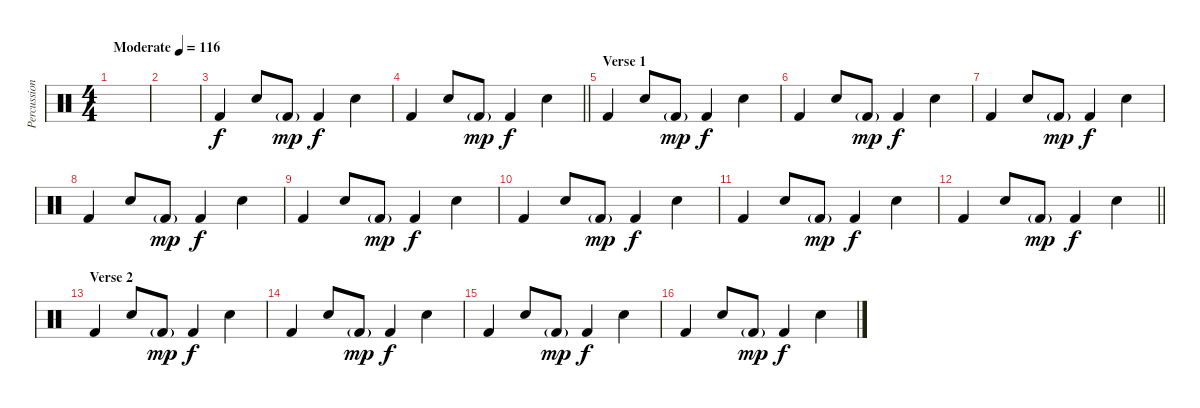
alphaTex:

\track ("Percussion" "Percussion") {instrument percussion}
\staff {score}
\articulation defaults
\ts (4 4)
\tempo (116 "Moderate")
\clef neutral
\ks c
|
|
"Kick (hit) 2".4 "Snare (hit) 2".8 "Kick (hit) 2"{g}.8{dy mp} "Kick (hit) 2".4{dy f} "Snare (hit) 2".4 |
\barLineRight lightlight "Kick (hit) 2".4 "Snare (hit) 2".8 "Kick (hit) 2"{g}.8{dy mp} "Kick (hit) 2".4{dy f} "Snare (hit) 2".4
|
\section ("" "Verse 1")
"Kick (hit) 2".4 "Snare (hit) 2".8 "Kick (hit) 2"{g}.8{dy mp} "Kick (hit) 2".4{dy f} "Snare (hit) 2".4 |
"Kick (hit) 2".4 "Snare (hit) 2".8 "Kick (hit) 2"{g}.8{dy mp} "Kick (hit) 2".4{dy f} "Snare (hit) 2".4 |
"Kick (hit) 2".4 "Snare (hit) 2".8 "Kick (hit) 2"{g}.8{dy mp} "Kick (hit) 2".4{dy f} "Snare (hit) 2".4 |
"Kick (hit) 2".4 "Snare (hit) 2".8 "Kick (hit) 2"{g}.8{dy mp} "Kick (hit) 2".4{dy f} "Snare (hit) 2".4 |
"Kick (hit) 2".4 "Snare (hit) 2".8 "Kick (hit) 2"{g}.8{dy mp} "Kick (hit) 2".4{dy f} "Snare (hit) 2".4 |
"Kick (hit) 2".4 "Snare (hit) 2".8 "Kick (hit) 2"{g}.8{dy mp} "Kick (hit) 2".4{dy f} "Snare (hit) 2".4 |
"Kick (hit) 2".4 "Snare (hit) 2".8 "Kick (hit) 2"{g}.8{dy mp} "Kick (hit) 2".4{dy f} "Snare (hit) 2".4 |
\barLineRight lightlight "Kick (hit) 2".4 "Snare (hit) 2".8 "Kick (hit) 2"{g}.8{dy mp} "Kick (hit) 2".4{dy f} "Snare (hit) 2".4
|
\section ("" "Verse 2")
"Kick (hit) 2".4 "Snare (hit) 2".8 "Kick (hit) 2"{g}.8{dy mp} "Kick (hit) 2".4{dy f} "Snare (hit) 2".4 |
"Kick (hit) 2".4 "Snare (hit) 2".8 "Kick (hit) 2"{g}.8{dy mp} "Kick (hit) 2".4{dy f} "Snare (hit) 2".4 |
"Kick (hit) 2".4 "Snare (hit) 2".8 "Kick (hit) 2"{g}.8{dy mp} "Kick (hit) 2".4{dy f} "Snare (hit) 2".4 |
"Kick (hit) 2".4 "Snare (hit) 2".8 "Kick (hit) 2"{g}.8{dy mp} "Kick (hit) 2".4{dy f} "Snare (hit) 2".4
